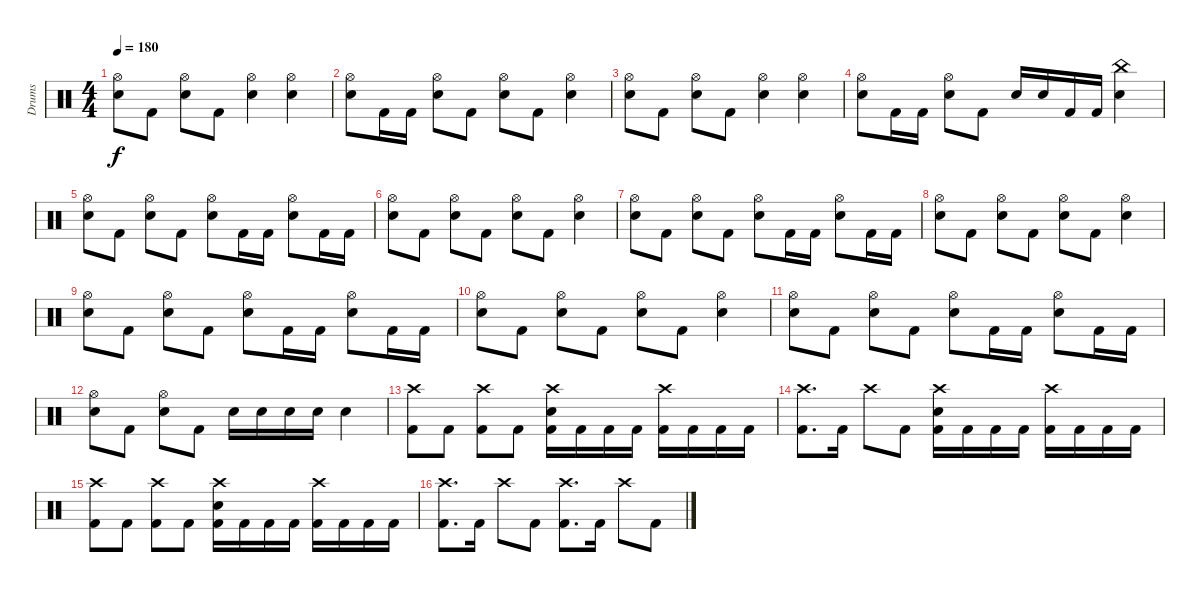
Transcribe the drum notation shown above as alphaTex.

\track ("Drums" "Drums") {instrument percussion}
\staff {score}
\articulation defaults
\ts (4 4)
\tempo 180
\clef neutral
\ks c
("Hi-Hat (open)" "Electric Snare (hit)").8{dy f} "Kick (hit) 2".8 ("Hi-Hat (open)" "Electric Snare (hit)").8 "Kick (hit) 2".8 ("Hi-Hat (open)" "Electric Snare (hit)").4 ("Hi-Hat (open)" "Electric Snare (hit)").4 |
("Hi-Hat (open)" "Electric Snare (hit)").8 "Kick (hit) 2".16 "Kick (hit) 2".16 ("Hi-Hat (open)" "Electric Snare (hit)").8 "Kick (hit) 2".8 ("Hi-Hat (open)" "Electric Snare (hit)").8 "Kick (hit) 2".8 ("Hi-Hat (open)" "Electric Snare (hit)").4 |
("Hi-Hat (open)" "Electric Snare (hit)").8 "Kick (hit) 2".8 ("Hi-Hat (open)" "Electric Snare (hit)").8 "Kick (hit) 2".8 ("Hi-Hat (open)" "Electric Snare (hit)").4 ("Hi-Hat (open)" "Electric Snare (hit)").4 |
("Hi-Hat (open)" "Electric Snare (hit)").8 "Kick (hit) 2".16 "Kick (hit) 2".16 ("Hi-Hat (open)" "Electric Snare (hit)").8 "Kick (hit) 2".8 "Electric Snare (hit)".16 "Electric Snare (hit)".16 "Kick (hit) 2".16 "Kick (hit) 2".16 ("China (hit)" "Electric Snare (hit)").4 |
("Hi-Hat (open)" "Electric Snare (hit)").8 "Kick (hit) 2".8 ("Hi-Hat (open)" "Electric Snare (hit)").8 "Kick (hit) 2".8 ("Hi-Hat (open)" "Electric Snare (hit)").8 "Kick (hit) 2".16 "Kick (hit) 2".16 ("Hi-Hat (open)" "Electric Snare (hit)").8 "Kick (hit) 2".16 "Kick (hit) 2".16 |
("Hi-Hat (open)" "Electric Snare (hit)").8 "Kick (hit) 2".8 ("Hi-Hat (open)" "Electric Snare (hit)").8 "Kick (hit) 2".8 ("Hi-Hat (open)" "Electric Snare (hit)").8 "Kick (hit) 2".8 ("Hi-Hat (open)" "Electric Snare (hit)").4 |
("Hi-Hat (open)" "Electric Snare (hit)").8 "Kick (hit) 2".8 ("Hi-Hat (open)" "Electric Snare (hit)").8 "Kick (hit) 2".8 ("Hi-Hat (open)" "Electric Snare (hit)").8 "Kick (hit) 2".16 "Kick (hit) 2".16 ("Hi-Hat (open)" "Electric Snare (hit)").8 "Kick (hit) 2".16 "Kick (hit) 2".16 |
("Hi-Hat (open)" "Electric Snare (hit)").8 "Kick (hit) 2".8 ("Hi-Hat (open)" "Electric Snare (hit)").8 "Kick (hit) 2".8 ("Hi-Hat (open)" "Electric Snare (hit)").8 "Kick (hit) 2".8 ("Hi-Hat (open)" "Electric Snare (hit)").4 |
("Hi-Hat (open)" "Electric Snare (hit)").8 "Kick (hit) 2".8 ("Hi-Hat (open)" "Electric Snare (hit)").8 "Kick (hit) 2".8 ("Hi-Hat (open)" "Electric Snare (hit)").8 "Kick (hit) 2".16 "Kick (hit) 2".16 ("Hi-Hat (open)" "Electric Snare (hit)").8 "Kick (hit) 2".16 "Kick (hit) 2".16 |
("Hi-Hat (open)" "Electric Snare (hit)").8 "Kick (hit) 2".8 ("Hi-Hat (open)" "Electric Snare (hit)").8 "Kick (hit) 2".8 ("Hi-Hat (open)" "Electric Snare (hit)").8 "Kick (hit) 2".8 ("Hi-Hat (open)" "Electric Snare (hit)").4 |
("Hi-Hat (open)" "Electric Snare (hit)").8 "Kick (hit) 2".8 ("Hi-Hat (open)" "Electric Snare (hit)").8 "Kick (hit) 2".8 ("Hi-Hat (open)" "Electric Snare (hit)").8 "Kick (hit) 2".16 "Kick (hit) 2".16 ("Hi-Hat (open)" "Electric Snare (hit)").8 "Kick (hit) 2".16 "Kick (hit) 2".16 |
("Hi-Hat (open)" "Electric Snare (hit)").8 "Kick (hit) 2".8 ("Hi-Hat (open)" "Electric Snare (hit)").8 "Kick (hit) 2".8 "Electric Snare (hit)".16 "Electric Snare (hit)".16 "Electric Snare (hit)".16 "Electric Snare (hit)".16 "Electric Snare (hit)".4 |
("Crash high (hit)" "Kick (hit) 2").8 "Kick (hit) 2".8 ("Crash high (hit)" "Kick (hit) 2").8 "Kick (hit) 2".8 ("Crash high (hit)" "Electric Snare (hit)" "Kick (hit) 2").16 "Kick (hit) 2".16 "Kick (hit) 2".16 "Kick (hit) 2".16 ("Crash high (hit)" "Kick (hit) 2").16 "Kick (hit) 2".16 "Kick (hit) 2".16 "Kick (hit) 2".16 |
("Crash high (hit)" "Kick (hit) 2").8{d} "Kick (hit) 2".16 "Crash high (hit)".8 "Kick (hit) 2".8 ("Crash high (hit)" "Electric Snare (hit)" "Kick (hit) 2").16 "Kick (hit) 2".16 "Kick (hit) 2".16 "Kick (hit) 2".16 ("Crash high (hit)" "Kick (hit) 2").16 "Kick (hit) 2".16 "Kick (hit) 2".16 "Kick (hit) 2".16 |
("Crash high (hit)" "Kick (hit) 2").8 "Kick (hit) 2".8 ("Crash high (hit)" "Kick (hit) 2").8 "Kick (hit) 2".8 ("Crash high (hit)" "Electric Snare (hit)" "Kick (hit) 2").16 "Kick (hit) 2".16 "Kick (hit) 2".16 "Kick (hit) 2".16 ("Crash high (hit)" "Kick (hit) 2").16 "Kick (hit) 2".16 "Kick (hit) 2".16 "Kick (hit) 2".16 |
("Crash high (hit)" "Kick (hit) 2").8{d} "Kick (hit) 2".16 "Crash high (hit)".8 "Kick (hit) 2".8 ("Crash high (hit)" "Kick (hit) 2").8{d} "Kick (hit) 2".16 "Crash high (hit)".8 "Kick (hit) 2".8
